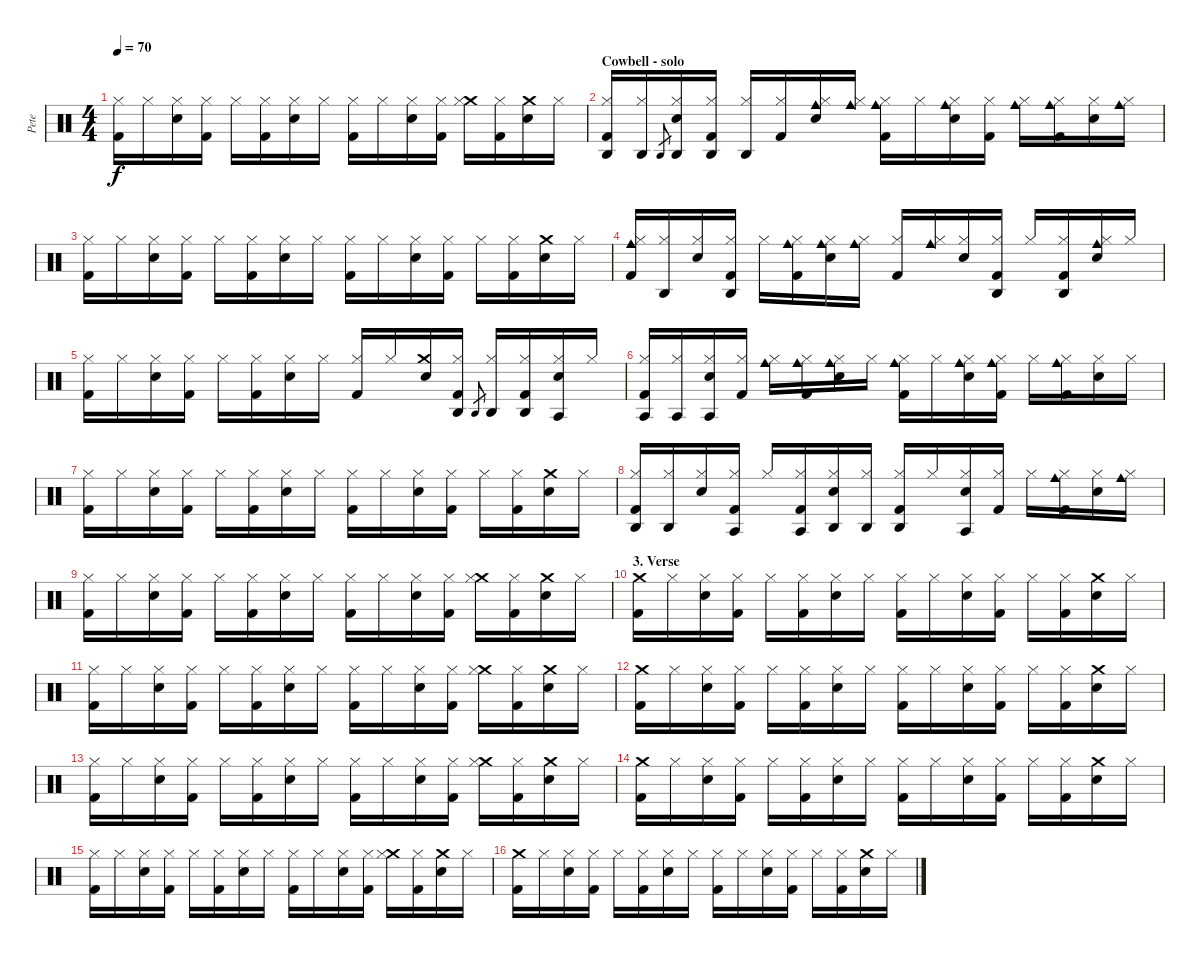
\track ("Pete" "Pete") {instrument percussion}
\staff {score}
\articulation defaults
\ts (4 4)
\tempo 70
\clef neutral
\ks c
("Hi-Hat (closed)" "Kick (hit) 2").16{dy f} "Hi-Hat (closed)".16 ("Hi-Hat (closed)" "Snare (hit) 2").16 ("Hi-Hat (closed)" "Kick (hit) 2").16 "Hi-Hat (closed)".16 ("Hi-Hat (closed)" "Kick (hit) 2").16 ("Hi-Hat (closed)" "Snare (hit) 2").16 "Hi-Hat (closed)".16 ("Hi-Hat (closed)" "Kick (hit) 2").16 "Hi-Hat (closed)".16 ("Hi-Hat (closed)" "Snare (hit) 2").16 ("Hi-Hat (closed)" "Kick (hit) 2").16 ("Crash medium (hit)" "Hi-Hat (closed)").16 ("Hi-Hat (closed)" "Kick (hit) 2").16 ("Crash medium (hit)" "Snare (hit) 2").16 "Hi-Hat (closed)".16 |
\section ("" "Cowbell - solo")
("Agogo high (hit)" "Hi-Hat (closed)" "Kick (hit) 2").16 ("Agogo high (hit)" "Hi-Hat (closed)").16 "Agogo high (hit)".8{gr} ("Agogo high (hit)" "Hi-Hat (closed)" "Snare (hit) 2").16 ("Agogo high (hit)" "Hi-Hat (closed)" "Kick (hit) 2").16 ("Agogo high (hit)" "Hi-Hat (closed)").16 ("Hi-Hat (closed)" "Kick (hit) 2").16 ("Cowbell medium (hit)" "Hi-Hat (closed)" "Snare (hit) 2").16 ("Cowbell medium (hit)" "Hi-Hat (closed)").16 ("Cowbell medium (hit)" "Hi-Hat (closed)" "Kick (hit) 2").16 "Hi-Hat (closed)".16 ("Cowbell medium (hit)" "Hi-Hat (closed)" "Snare (hit) 2").16 ("Hi-Hat (closed)" "Kick (hit) 2").16 ("Cowbell medium (hit)" "Hi-Hat (closed)").16 ("Cowbell medium (hit)" "Hi-Hat (closed)" "Kick (hit) 2").16 ("Hi-Hat (closed)" "Snare (hit) 2").16 ("Cowbell medium (hit)" "Hi-Hat (closed)").16 |
("Hi-Hat (closed)" "Kick (hit) 2").16 "Hi-Hat (closed)".16 ("Hi-Hat (closed)" "Snare (hit) 2").16 ("Hi-Hat (closed)" "Kick (hit) 2").16 "Hi-Hat (closed)".16 ("Hi-Hat (closed)" "Kick (hit) 2").16 ("Hi-Hat (closed)" "Snare (hit) 2").16 "Hi-Hat (closed)".16 ("Hi-Hat (closed)" "Kick (hit) 2").16 "Hi-Hat (closed)".16 ("Hi-Hat (closed)" "Snare (hit) 2").16 ("Hi-Hat (closed)" "Kick (hit) 2").16 "Hi-Hat (closed)".16 ("Hi-Hat (closed)" "Kick (hit) 2").16 ("Crash medium (hit)" "Snare (hit) 2").16 "Hi-Hat (closed)".16 |
("Cowbell medium (hit)" "Hi-Hat (closed)" "Kick (hit) 2").16 ("Agogo high (hit)" "Hi-Hat (closed)").16 ("Hi-Hat (closed)" "Snare (hit) 2").16 ("Agogo high (hit)" "Hi-Hat (closed)" "Kick (hit) 2").16 "Hi-Hat (closed)".16 ("Cowbell medium (hit)" "Hi-Hat (closed)" "Kick (hit) 2").16 ("Cowbell medium (hit)" "Hi-Hat (closed)" "Snare (hit) 2").16 ("Cowbell medium (hit)" "Hi-Hat (closed)").16 ("Hi-Hat (closed)" "Kick (hit) 2").16 ("Cowbell medium (hit)" "Hi-Hat (closed)").16 ("Hi-Hat (closed)" "Snare (hit) 2").16 ("Agogo high (hit)" "Hi-Hat (closed)" "Kick (hit) 2").16 "Hi-Hat (closed)".16 ("Agogo high (hit)" "Hi-Hat (closed)" "Kick (hit) 2").16 ("Cowbell medium (hit)" "Hi-Hat (closed)" "Snare (hit) 2").16 "Hi-Hat (closed)".16 |
("Hi-Hat (closed)" "Kick (hit) 2").16 "Hi-Hat (closed)".16 ("Hi-Hat (closed)" "Snare (hit) 2").16 ("Hi-Hat (closed)" "Kick (hit) 2").16 "Hi-Hat (closed)".16 ("Hi-Hat (closed)" "Kick (hit) 2").16 ("Hi-Hat (closed)" "Snare (hit) 2").16 "Hi-Hat (closed)".16 ("Hi-Hat (closed)" "Kick (hit) 2").16 "Hi-Hat (closed)".16 ("Crash medium (hit)" "Snare (hit) 2").16 ("Agogo high (hit)" "Hi-Hat (closed)" "Kick (hit) 2").16 "Agogo high (hit)".8{gr} ("Agogo high (hit)" "Hi-Hat (closed)").16 ("Agogo high (hit)" "Hi-Hat (closed)" "Kick (hit) 2").16 ("Agogo tow (hit)" "Hi-Hat (closed)" "Snare (hit) 2").16 "Hi-Hat (closed)".16 |
("Agogo tow (hit)" "Hi-Hat (closed)" "Kick (hit) 2").16 ("Agogo tow (hit)" "Hi-Hat (closed)").16 ("Agogo tow (hit)" "Hi-Hat (closed)" "Snare (hit) 2").16 ("Hi-Hat (closed)" "Kick (hit) 2").16 ("Cowbell medium (hit)" "Hi-Hat (closed)").16 ("Cowbell medium (hit)" "Hi-Hat (closed)" "Kick (hit) 2").16 ("Cowbell medium (hit)" "Hi-Hat (closed)" "Snare (hit) 2").16 "Hi-Hat (closed)".16 ("Cowbell medium (hit)" "Hi-Hat (closed)" "Kick (hit) 2").16 "Hi-Hat (closed)".16 ("Cowbell medium (hit)" "Hi-Hat (closed)" "Snare (hit) 2").16 ("Cowbell medium (hit)" "Hi-Hat (closed)" "Kick (hit) 2").16 "Hi-Hat (closed)".16 ("Cowbell medium (hit)" "Hi-Hat (closed)" "Kick (hit) 2").16 ("Hi-Hat (closed)" "Snare (hit) 2").16 "Hi-Hat (closed)".16 |
("Hi-Hat (closed)" "Kick (hit) 2").16 "Hi-Hat (closed)".16 ("Hi-Hat (closed)" "Snare (hit) 2").16 ("Hi-Hat (closed)" "Kick (hit) 2").16 "Hi-Hat (closed)".16 ("Hi-Hat (closed)" "Kick (hit) 2").16 ("Hi-Hat (closed)" "Snare (hit) 2").16 "Hi-Hat (closed)".16 ("Hi-Hat (closed)" "Kick (hit) 2").16 "Hi-Hat (closed)".16 ("Hi-Hat (closed)" "Snare (hit) 2").16 ("Hi-Hat (closed)" "Kick (hit) 2").16 "Hi-Hat (closed)".16 ("Hi-Hat (closed)" "Kick (hit) 2").16 ("Crash medium (hit)" "Snare (hit) 2").16 "Hi-Hat (closed)".16 |
("Agogo high (hit)" "Hi-Hat (closed)" "Kick (hit) 2").16 ("Agogo high (hit)" "Hi-Hat (closed)").16 ("Hi-Hat (closed)" "Snare (hit) 2").16 ("Agogo tow (hit)" "Hi-Hat (closed)" "Kick (hit) 2").16 "Hi-Hat (closed)".16 ("Agogo tow (hit)" "Hi-Hat (closed)" "Kick (hit) 2").16 ("Agogo high (hit)" "Hi-Hat (closed)" "Snare (hit) 2").16 ("Agogo high (hit)" "Hi-Hat (closed)").16 ("Agogo high (hit)" "Hi-Hat (closed)" "Kick (hit) 2").16 "Hi-Hat (closed)".16 ("Agogo tow (hit)" "Hi-Hat (closed)" "Snare (hit) 2").16 ("Hi-Hat (closed)" "Kick (hit) 2").16 "Hi-Hat (closed)".16 ("Cowbell medium (hit)" "Hi-Hat (closed)" "Kick (hit) 2").16 ("Hi-Hat (closed)" "Snare (hit) 2").16 ("Cowbell medium (hit)" "Hi-Hat (closed)").16 |
("Hi-Hat (closed)" "Kick (hit) 2").16 "Hi-Hat (closed)".16 ("Hi-Hat (closed)" "Snare (hit) 2").16 ("Hi-Hat (closed)" "Kick (hit) 2").16 "Hi-Hat (closed)".16 ("Hi-Hat (closed)" "Kick (hit) 2").16 ("Hi-Hat (closed)" "Snare (hit) 2").16 "Hi-Hat (closed)".16 ("Hi-Hat (closed)" "Kick (hit) 2").16 "Hi-Hat (closed)".16 ("Hi-Hat (closed)" "Snare (hit) 2").16 ("Hi-Hat (closed)" "Kick (hit) 2").16 ("Crash medium (hit)" "Hi-Hat (closed)").16 ("Hi-Hat (closed)" "Kick (hit) 2").16 ("Crash medium (hit)" "Snare (hit) 2").16 "Hi-Hat (closed)".16 |
\section ("" "3. Verse")
("Crash medium (hit)" "Kick (hit) 2").16 "Hi-Hat (closed)".16 ("Hi-Hat (closed)" "Snare (hit) 2").16 ("Hi-Hat (closed)" "Kick (hit) 2").16 "Hi-Hat (closed)".16 ("Hi-Hat (closed)" "Kick (hit) 2").16 ("Hi-Hat (closed)" "Snare (hit) 2").16 "Hi-Hat (closed)".16 ("Hi-Hat (closed)" "Kick (hit) 2").16 "Hi-Hat (closed)".16 ("Hi-Hat (closed)" "Snare (hit) 2").16 ("Hi-Hat (closed)" "Kick (hit) 2").16 "Hi-Hat (closed)".16 ("Hi-Hat (closed)" "Kick (hit) 2").16 ("Crash medium (hit)" "Snare (hit) 2").16 "Hi-Hat (closed)".16 |
("Hi-Hat (closed)" "Kick (hit) 2").16 "Hi-Hat (closed)".16 ("Hi-Hat (closed)" "Snare (hit) 2").16 ("Hi-Hat (closed)" "Kick (hit) 2").16 "Hi-Hat (closed)".16 ("Hi-Hat (closed)" "Kick (hit) 2").16 ("Hi-Hat (closed)" "Snare (hit) 2").16 "Hi-Hat (closed)".16 ("Hi-Hat (closed)" "Kick (hit) 2").16 "Hi-Hat (closed)".16 ("Hi-Hat (closed)" "Snare (hit) 2").16 ("Hi-Hat (closed)" "Kick (hit) 2").16 ("Crash medium (hit)" "Hi-Hat (closed)").16 ("Hi-Hat (closed)" "Kick (hit) 2").16 ("Crash medium (hit)" "Snare (hit) 2").16 "Hi-Hat (closed)".16 |
("Crash medium (hit)" "Kick (hit) 2").16 "Hi-Hat (closed)".16 ("Hi-Hat (closed)" "Snare (hit) 2").16 ("Hi-Hat (closed)" "Kick (hit) 2").16 "Hi-Hat (closed)".16 ("Hi-Hat (closed)" "Kick (hit) 2").16 ("Hi-Hat (closed)" "Snare (hit) 2").16 "Hi-Hat (closed)".16 ("Hi-Hat (closed)" "Kick (hit) 2").16 "Hi-Hat (closed)".16 ("Hi-Hat (closed)" "Snare (hit) 2").16 ("Hi-Hat (closed)" "Kick (hit) 2").16 "Hi-Hat (closed)".16 ("Hi-Hat (closed)" "Kick (hit) 2").16 ("Crash medium (hit)" "Snare (hit) 2").16 "Hi-Hat (closed)".16 |
("Hi-Hat (closed)" "Kick (hit) 2").16 "Hi-Hat (closed)".16 ("Hi-Hat (closed)" "Snare (hit) 2").16 ("Hi-Hat (closed)" "Kick (hit) 2").16 "Hi-Hat (closed)".16 ("Hi-Hat (closed)" "Kick (hit) 2").16 ("Hi-Hat (closed)" "Snare (hit) 2").16 "Hi-Hat (closed)".16 ("Hi-Hat (closed)" "Kick (hit) 2").16 "Hi-Hat (closed)".16 ("Hi-Hat (closed)" "Snare (hit) 2").16 ("Hi-Hat (closed)" "Kick (hit) 2").16 ("Crash medium (hit)" "Hi-Hat (closed)").16 ("Hi-Hat (closed)" "Kick (hit) 2").16 ("Crash medium (hit)" "Snare (hit) 2").16 "Hi-Hat (closed)".16 |
("Crash medium (hit)" "Kick (hit) 2").16 "Hi-Hat (closed)".16 ("Hi-Hat (closed)" "Snare (hit) 2").16 ("Hi-Hat (closed)" "Kick (hit) 2").16 "Hi-Hat (closed)".16 ("Hi-Hat (closed)" "Kick (hit) 2").16 ("Hi-Hat (closed)" "Snare (hit) 2").16 "Hi-Hat (closed)".16 ("Hi-Hat (closed)" "Kick (hit) 2").16 "Hi-Hat (closed)".16 ("Hi-Hat (closed)" "Snare (hit) 2").16 ("Hi-Hat (closed)" "Kick (hit) 2").16 "Hi-Hat (closed)".16 ("Hi-Hat (closed)" "Kick (hit) 2").16 ("Crash medium (hit)" "Snare (hit) 2").16 "Hi-Hat (closed)".16 |
("Hi-Hat (closed)" "Kick (hit) 2").16 "Hi-Hat (closed)".16 ("Hi-Hat (closed)" "Snare (hit) 2").16 ("Hi-Hat (closed)" "Kick (hit) 2").16 "Hi-Hat (closed)".16 ("Hi-Hat (closed)" "Kick (hit) 2").16 ("Hi-Hat (closed)" "Snare (hit) 2").16 "Hi-Hat (closed)".16 ("Hi-Hat (closed)" "Kick (hit) 2").16 "Hi-Hat (closed)".16 ("Hi-Hat (closed)" "Snare (hit) 2").16 ("Hi-Hat (closed)" "Kick (hit) 2").16 ("Crash medium (hit)" "Hi-Hat (closed)").16 ("Hi-Hat (closed)" "Kick (hit) 2").16 ("Crash medium (hit)" "Snare (hit) 2").16 "Hi-Hat (closed)".16 |
("Crash medium (hit)" "Kick (hit) 2").16 "Hi-Hat (closed)".16 ("Hi-Hat (closed)" "Snare (hit) 2").16 ("Hi-Hat (closed)" "Kick (hit) 2").16 "Hi-Hat (closed)".16 ("Hi-Hat (closed)" "Kick (hit) 2").16 ("Hi-Hat (closed)" "Snare (hit) 2").16 "Hi-Hat (closed)".16 ("Hi-Hat (closed)" "Kick (hit) 2").16 "Hi-Hat (closed)".16 ("Hi-Hat (closed)" "Snare (hit) 2").16 ("Hi-Hat (closed)" "Kick (hit) 2").16 "Hi-Hat (closed)".16 ("Hi-Hat (closed)" "Kick (hit) 2").16 ("Crash medium (hit)" "Snare (hit) 2").16 "Hi-Hat (closed)".16
